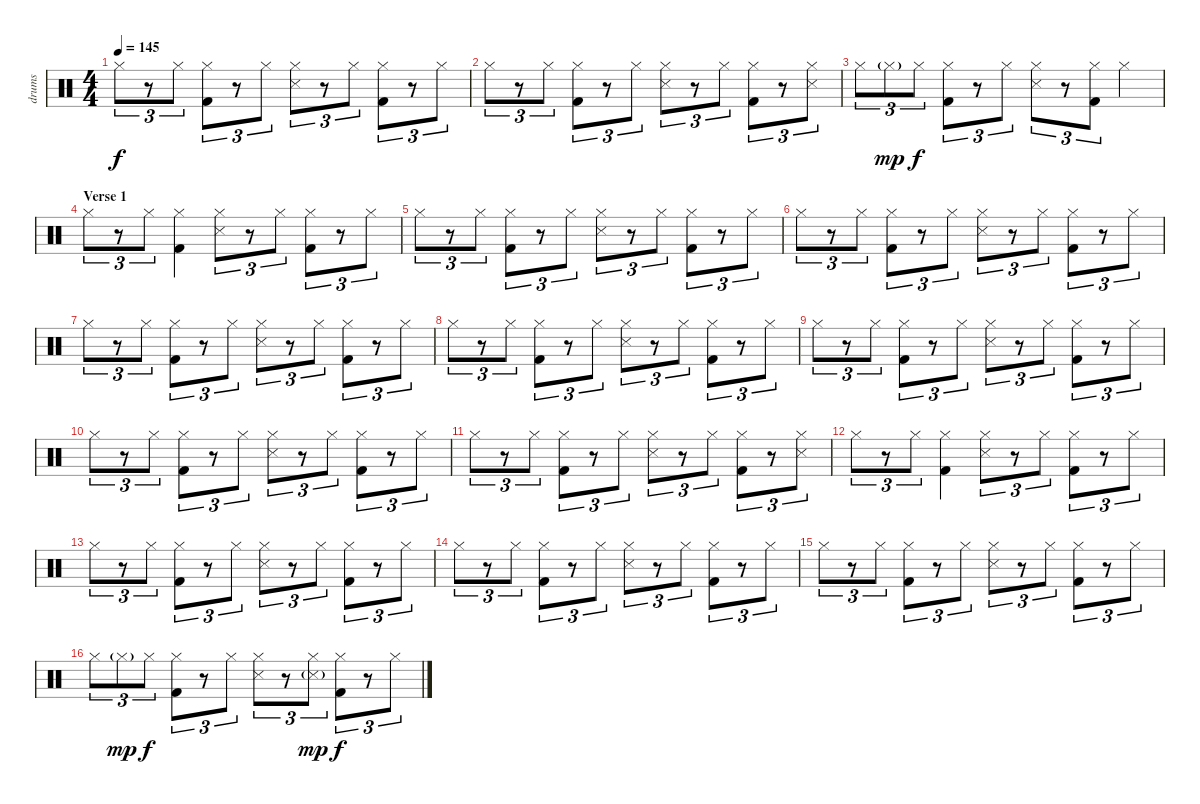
\track ("drums" "drums") {instrument percussion}
\staff {score}
\articulation defaults
\ts (4 4)
\tempo 145
\clef neutral
\ks c "Hi-Hat (closed)".8{tu (3 2) dy f}
r.8{tu (3 2)} "Hi-Hat (closed)".8{tu (3 2)} ("Hi-Hat (closed)" "Kick (hit) 2").8{tu (3 2)} r.8{tu (3 2)} "Hi-Hat (closed)".8{tu (3 2)} ("Hi-Hat (closed)" "Snare (side stick) 3").8{tu (3 2)} r.8{tu (3 2)} "Hi-Hat (closed)".8{tu (3 2)} ("Hi-Hat (closed)" "Kick (hit) 2").8{tu (3 2)} r.8{tu (3 2)} "Hi-Hat (closed)".8{tu (3 2)} |
"Hi-Hat (closed)".8{tu (3 2)} r.8{tu (3 2)} "Hi-Hat (closed)".8{tu (3 2)} ("Hi-Hat (closed)" "Kick (hit) 2").8{tu (3 2)} r.8{tu (3 2)} "Hi-Hat (closed)".8{tu (3 2)} ("Hi-Hat (closed)" "Snare (side stick) 3").8{tu (3 2)} r.8{tu (3 2)} "Hi-Hat (closed)".8{tu (3 2)} ("Hi-Hat (closed)" "Kick (hit) 2").8{tu (3 2)} r.8{tu (3 2)} ("Hi-Hat (closed)" "Snare (side stick) 3").8{tu (3 2)} |
"Hi-Hat (closed)".8{tu (3 2)} "Hi-Hat (closed)"{g}.8{tu (3 2) dy mp} "Hi-Hat (closed)".8{tu (3 2) dy f} ("Hi-Hat (closed)" "Kick (hit) 2").8{tu (3 2)} r.8{tu (3 2)} "Hi-Hat (closed)".8{tu (3 2)} ("Hi-Hat (closed)" "Snare (side stick) 3").8{tu (3 2)} r.8{tu (3 2)} ("Hi-Hat (closed)" "Kick (hit) 2").8{tu (3 2)} "Hi-Hat (closed)".4 |
\section ("" "Verse 1")
"Hi-Hat (closed)".8{tu (3 2)} r.8{tu (3 2)} "Hi-Hat (closed)".8{tu (3 2)} ("Hi-Hat (closed)" "Kick (hit) 2").4 ("Hi-Hat (closed)" "Snare (side stick) 3").8{tu (3 2)} r.8{tu (3 2)} "Hi-Hat (closed)".8{tu (3 2)} ("Hi-Hat (closed)" "Kick (hit) 2").8{tu (3 2)} r.8{tu (3 2)} "Hi-Hat (closed)".8{tu (3 2)} |
"Hi-Hat (closed)".8{tu (3 2)} r.8{tu (3 2)} "Hi-Hat (closed)".8{tu (3 2)} ("Hi-Hat (closed)" "Kick (hit) 2").8{tu (3 2)} r.8{tu (3 2)} "Hi-Hat (closed)".8{tu (3 2)} ("Hi-Hat (closed)" "Snare (side stick) 3").8{tu (3 2)} r.8{tu (3 2)} "Hi-Hat (closed)".8{tu (3 2)} ("Hi-Hat (closed)" "Kick (hit) 2").8{tu (3 2)} r.8{tu (3 2)} "Hi-Hat (closed)".8{tu (3 2)} |
"Hi-Hat (closed)".8{tu (3 2)} r.8{tu (3 2)} "Hi-Hat (closed)".8{tu (3 2)} ("Hi-Hat (closed)" "Kick (hit) 2").8{tu (3 2)} r.8{tu (3 2)} "Hi-Hat (closed)".8{tu (3 2)} ("Hi-Hat (closed)" "Snare (side stick) 3").8{tu (3 2)} r.8{tu (3 2)} "Hi-Hat (closed)".8{tu (3 2)} ("Hi-Hat (closed)" "Kick (hit) 2").8{tu (3 2)} r.8{tu (3 2)} "Hi-Hat (closed)".8{tu (3 2)} |
"Hi-Hat (closed)".8{tu (3 2)} r.8{tu (3 2)} "Hi-Hat (closed)".8{tu (3 2)} ("Hi-Hat (closed)" "Kick (hit) 2").8{tu (3 2)} r.8{tu (3 2)} "Hi-Hat (closed)".8{tu (3 2)} ("Hi-Hat (closed)" "Snare (side stick) 3").8{tu (3 2)} r.8{tu (3 2)} "Hi-Hat (closed)".8{tu (3 2)} ("Hi-Hat (closed)" "Kick (hit) 2").8{tu (3 2)} r.8{tu (3 2)} "Hi-Hat (closed)".8{tu (3 2)} |
"Hi-Hat (closed)".8{tu (3 2)} r.8{tu (3 2)} "Hi-Hat (closed)".8{tu (3 2)} ("Hi-Hat (closed)" "Kick (hit) 2").8{tu (3 2)} r.8{tu (3 2)} "Hi-Hat (closed)".8{tu (3 2)} ("Hi-Hat (closed)" "Snare (side stick) 3").8{tu (3 2)} r.8{tu (3 2)} "Hi-Hat (closed)".8{tu (3 2)} ("Hi-Hat (closed)" "Kick (hit) 2").8{tu (3 2)} r.8{tu (3 2)} "Hi-Hat (closed)".8{tu (3 2)} |
"Hi-Hat (closed)".8{tu (3 2)} r.8{tu (3 2)} "Hi-Hat (closed)".8{tu (3 2)} ("Hi-Hat (closed)" "Kick (hit) 2").8{tu (3 2)} r.8{tu (3 2)} "Hi-Hat (closed)".8{tu (3 2)} ("Hi-Hat (closed)" "Snare (side stick) 3").8{tu (3 2)} r.8{tu (3 2)} "Hi-Hat (closed)".8{tu (3 2)} ("Hi-Hat (closed)" "Kick (hit) 2").8{tu (3 2)} r.8{tu (3 2)} "Hi-Hat (closed)".8{tu (3 2)} |
"Hi-Hat (closed)".8{tu (3 2)} r.8{tu (3 2)} "Hi-Hat (closed)".8{tu (3 2)} ("Hi-Hat (closed)" "Kick (hit) 2").8{tu (3 2)} r.8{tu (3 2)} "Hi-Hat (closed)".8{tu (3 2)} ("Hi-Hat (closed)" "Snare (side stick) 3").8{tu (3 2)} r.8{tu (3 2)} "Hi-Hat (closed)".8{tu (3 2)} ("Hi-Hat (closed)" "Kick (hit) 2").8{tu (3 2)} r.8{tu (3 2)} "Hi-Hat (closed)".8{tu (3 2)} |
"Hi-Hat (closed)".8{tu (3 2)} r.8{tu (3 2)} "Hi-Hat (closed)".8{tu (3 2)} ("Hi-Hat (closed)" "Kick (hit) 2").8{tu (3 2)} r.8{tu (3 2)} "Hi-Hat (closed)".8{tu (3 2)} ("Hi-Hat (closed)" "Snare (side stick) 3").8{tu (3 2)} r.8{tu (3 2)} "Hi-Hat (closed)".8{tu (3 2)} ("Hi-Hat (closed)" "Kick (hit) 2").8{tu (3 2)} r.8{tu (3 2)} ("Hi-Hat (closed)" "Snare (side stick) 3").8{tu (3 2)} |
"Hi-Hat (closed)".8{tu (3 2)} r.8{tu (3 2)} "Hi-Hat (closed)".8{tu (3 2)} ("Hi-Hat (closed)" "Kick (hit) 2").4 ("Hi-Hat (closed)" "Snare (side stick) 3").8{tu (3 2)} r.8{tu (3 2)} "Hi-Hat (closed)".8{tu (3 2)} ("Hi-Hat (closed)" "Kick (hit) 2").8{tu (3 2)} r.8{tu (3 2)} "Hi-Hat (closed)".8{tu (3 2)} |
"Hi-Hat (closed)".8{tu (3 2)} r.8{tu (3 2)} "Hi-Hat (closed)".8{tu (3 2)} ("Hi-Hat (closed)" "Kick (hit) 2").8{tu (3 2)} r.8{tu (3 2)} "Hi-Hat (closed)".8{tu (3 2)} ("Hi-Hat (closed)" "Snare (side stick) 3").8{tu (3 2)} r.8{tu (3 2)} "Hi-Hat (closed)".8{tu (3 2)} ("Hi-Hat (closed)" "Kick (hit) 2").8{tu (3 2)} r.8{tu (3 2)} "Hi-Hat (closed)".8{tu (3 2)} |
"Hi-Hat (closed)".8{tu (3 2)} r.8{tu (3 2)} "Hi-Hat (closed)".8{tu (3 2)} ("Hi-Hat (closed)" "Kick (hit) 2").8{tu (3 2)} r.8{tu (3 2)} "Hi-Hat (closed)".8{tu (3 2)} ("Hi-Hat (closed)" "Snare (side stick) 3").8{tu (3 2)} r.8{tu (3 2)} "Hi-Hat (closed)".8{tu (3 2)} ("Hi-Hat (closed)" "Kick (hit) 2").8{tu (3 2)} r.8{tu (3 2)} "Hi-Hat (closed)".8{tu (3 2)} |
"Hi-Hat (closed)".8{tu (3 2)} r.8{tu (3 2)} "Hi-Hat (closed)".8{tu (3 2)} ("Hi-Hat (closed)" "Kick (hit) 2").8{tu (3 2)} r.8{tu (3 2)} "Hi-Hat (closed)".8{tu (3 2)} ("Hi-Hat (closed)" "Snare (side stick) 3").8{tu (3 2)} r.8{tu (3 2)} "Hi-Hat (closed)".8{tu (3 2)} ("Hi-Hat (closed)" "Kick (hit) 2").8{tu (3 2)} r.8{tu (3 2)} "Hi-Hat (closed)".8{tu (3 2)} |
"Hi-Hat (closed)".8{tu (3 2)} "Hi-Hat (closed)"{g}.8{tu (3 2) dy mp} "Hi-Hat (closed)".8{tu (3 2) dy f} ("Hi-Hat (closed)" "Kick (hit) 2").8{tu (3 2)} r.8{tu (3 2)} "Hi-Hat (closed)".8{tu (3 2)} ("Hi-Hat (closed)" "Snare (side stick) 3").8{tu (3 2)} r.8{tu (3 2)} ("Hi-Hat (closed)" "Snare (side stick) 3"{g}).8{tu (3 2) dy mp} ("Hi-Hat (closed)" "Kick (hit) 2").8{tu (3 2) dy f} r.8{tu (3 2)} "Hi-Hat (closed)".8{tu (3 2)}
